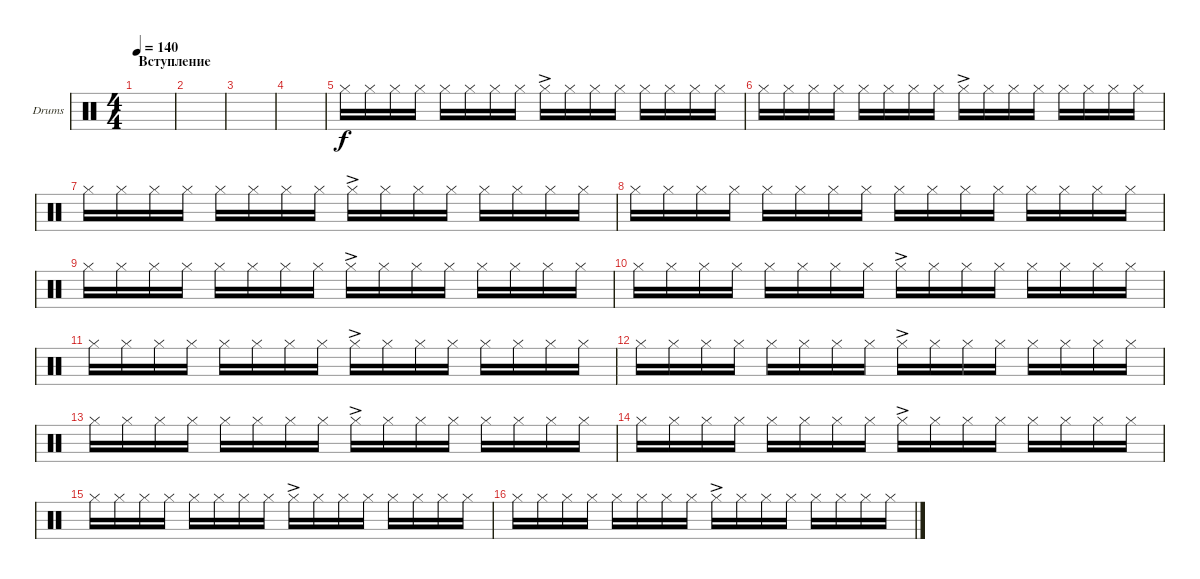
\defaultSystemsLayout 4
\bracketExtendMode groupsimilarinstruments
\firstSystemTrackNameOrientation horizontal
\otherSystemsTrackNameOrientation horizontal
\track ("Ударные" "Drums") {instrument percussion}
\staff {score}
\articulation defaults
\ts (4 4)
\section ("" "Вступление")
\tempo 140
\clef neutral
\scale
0.472222
\ks c
|
\scale
0.263889 |
\scale
0.263889 |
\scale
0.333333 |
\scale
0.333333 "Hi-Hat (closed)".16 "Hi-Hat (closed)".16 "Hi-Hat (closed)".16 "Hi-Hat (closed)".16 "Hi-Hat (closed)".16 "Hi-Hat (closed)".16 "Hi-Hat (closed)".16 "Hi-Hat (closed)".16 "Hi-Hat (closed)"{ac}.16 "Hi-Hat (closed)".16 "Hi-Hat (closed)".16 "Hi-Hat (closed)".16 "Hi-Hat (closed)".16 "Hi-Hat (closed)".16 "Hi-Hat (closed)".16 "Hi-Hat (closed)".16 |
\scale
0.333333 "Hi-Hat (closed)".16 "Hi-Hat (closed)".16 "Hi-Hat (closed)".16 "Hi-Hat (closed)".16 "Hi-Hat (closed)".16 "Hi-Hat (closed)".16 "Hi-Hat (closed)".16 "Hi-Hat (closed)".16 "Hi-Hat (closed)"{ac}.16 "Hi-Hat (closed)".16 "Hi-Hat (closed)".16 "Hi-Hat (closed)".16 "Hi-Hat (closed)".16 "Hi-Hat (closed)".16 "Hi-Hat (closed)".16 "Hi-Hat (closed)".16 |
\scale
0.333333 "Hi-Hat (closed)".16 "Hi-Hat (closed)".16 "Hi-Hat (closed)".16 "Hi-Hat (closed)".16 "Hi-Hat (closed)".16 "Hi-Hat (closed)".16 "Hi-Hat (closed)".16 "Hi-Hat (closed)".16 "Hi-Hat (closed)"{ac}.16 "Hi-Hat (closed)".16 "Hi-Hat (closed)".16 "Hi-Hat (closed)".16 "Hi-Hat (closed)".16 "Hi-Hat (closed)".16 "Hi-Hat (closed)".16 "Hi-Hat (closed)".16 |
\scale
0.333333 "Hi-Hat (closed)".16 "Hi-Hat (closed)".16 "Hi-Hat (closed)".16 "Hi-Hat (closed)".16 "Hi-Hat (closed)".16 "Hi-Hat (closed)".16 "Hi-Hat (closed)".16 "Hi-Hat (closed)".16 "Hi-Hat (closed)".16 "Hi-Hat (closed)".16 "Hi-Hat (closed)".16 "Hi-Hat (closed)".16 "Hi-Hat (closed)".16 "Hi-Hat (closed)".16 "Hi-Hat (closed)".16 "Hi-Hat (closed)".16 |
\scale
0.333333 "Hi-Hat (closed)".16 "Hi-Hat (closed)".16 "Hi-Hat (closed)".16 "Hi-Hat (closed)".16 "Hi-Hat (closed)".16 "Hi-Hat (closed)".16 "Hi-Hat (closed)".16 "Hi-Hat (closed)".16 "Hi-Hat (closed)"{ac}.16 "Hi-Hat (closed)".16 "Hi-Hat (closed)".16 "Hi-Hat (closed)".16 "Hi-Hat (closed)".16 "Hi-Hat (closed)".16 "Hi-Hat (closed)".16 "Hi-Hat (closed)".16 |
\scale
0.333333 "Hi-Hat (closed)".16 "Hi-Hat (closed)".16 "Hi-Hat (closed)".16 "Hi-Hat (closed)".16 "Hi-Hat (closed)".16 "Hi-Hat (closed)".16 "Hi-Hat (closed)".16 "Hi-Hat (closed)".16 "Hi-Hat (closed)"{ac}.16 "Hi-Hat (closed)".16 "Hi-Hat (closed)".16 "Hi-Hat (closed)".16 "Hi-Hat (closed)".16 "Hi-Hat (closed)".16 "Hi-Hat (closed)".16 "Hi-Hat (closed)".16 |
\scale
0.333333 "Hi-Hat (closed)".16 "Hi-Hat (closed)".16 "Hi-Hat (closed)".16 "Hi-Hat (closed)".16 "Hi-Hat (closed)".16 "Hi-Hat (closed)".16 "Hi-Hat (closed)".16 "Hi-Hat (closed)".16 "Hi-Hat (closed)"{ac}.16 "Hi-Hat (closed)".16 "Hi-Hat (closed)".16 "Hi-Hat (closed)".16 "Hi-Hat (closed)".16 "Hi-Hat (closed)".16 "Hi-Hat (closed)".16 "Hi-Hat (closed)".16 |
\scale
0.333333 "Hi-Hat (closed)".16 "Hi-Hat (closed)".16 "Hi-Hat (closed)".16 "Hi-Hat (closed)".16 "Hi-Hat (closed)".16 "Hi-Hat (closed)".16 "Hi-Hat (closed)".16 "Hi-Hat (closed)".16 "Hi-Hat (closed)"{ac}.16 "Hi-Hat (closed)".16 "Hi-Hat (closed)".16 "Hi-Hat (closed)".16 "Hi-Hat (closed)".16 "Hi-Hat (closed)".16 "Hi-Hat (closed)".16 "Hi-Hat (closed)".16 |
\scale
0.333333 "Hi-Hat (closed)".16 "Hi-Hat (closed)".16 "Hi-Hat (closed)".16 "Hi-Hat (closed)".16 "Hi-Hat (closed)".16 "Hi-Hat (closed)".16 "Hi-Hat (closed)".16 "Hi-Hat (closed)".16 "Hi-Hat (closed)"{ac}.16 "Hi-Hat (closed)".16 "Hi-Hat (closed)".16 "Hi-Hat (closed)".16 "Hi-Hat (closed)".16 "Hi-Hat (closed)".16 "Hi-Hat (closed)".16 "Hi-Hat (closed)".16 |
\scale
0.333333 "Hi-Hat (closed)".16 "Hi-Hat (closed)".16 "Hi-Hat (closed)".16 "Hi-Hat (closed)".16 "Hi-Hat (closed)".16 "Hi-Hat (closed)".16 "Hi-Hat (closed)".16 "Hi-Hat (closed)".16 "Hi-Hat (closed)"{ac}.16 "Hi-Hat (closed)".16 "Hi-Hat (closed)".16 "Hi-Hat (closed)".16 "Hi-Hat (closed)".16 "Hi-Hat (closed)".16 "Hi-Hat (closed)".16 "Hi-Hat (closed)".16 |
\scale
0.333333 "Hi-Hat (closed)".16 "Hi-Hat (closed)".16 "Hi-Hat (closed)".16 "Hi-Hat (closed)".16 "Hi-Hat (closed)".16 "Hi-Hat (closed)".16 "Hi-Hat (closed)".16 "Hi-Hat (closed)".16 "Hi-Hat (closed)"{ac}.16 "Hi-Hat (closed)".16 "Hi-Hat (closed)".16 "Hi-Hat (closed)".16 "Hi-Hat (closed)".16 "Hi-Hat (closed)".16 "Hi-Hat (closed)".16 "Hi-Hat (closed)".16 |
\scale
0.333333 "Hi-Hat (closed)".16 "Hi-Hat (closed)".16 "Hi-Hat (closed)".16 "Hi-Hat (closed)".16 "Hi-Hat (closed)".16 "Hi-Hat (closed)".16 "Hi-Hat (closed)".16 "Hi-Hat (closed)".16 "Hi-Hat (closed)"{ac}.16 "Hi-Hat (closed)".16 "Hi-Hat (closed)".16 "Hi-Hat (closed)".16 "Hi-Hat (closed)".16 "Hi-Hat (closed)".16 "Hi-Hat (closed)".16 "Hi-Hat (closed)".16
